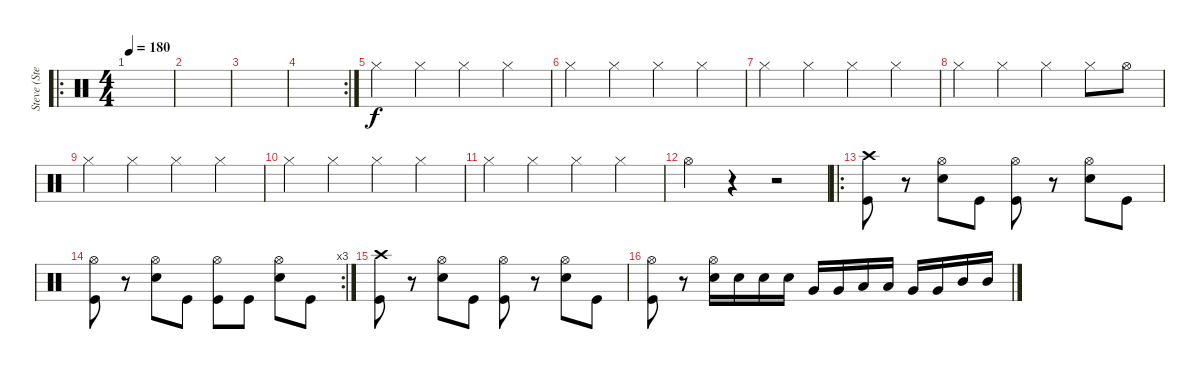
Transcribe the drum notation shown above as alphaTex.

\track ("Steve (Stevo32) - Drums" "Steve (Ste") {instrument percussion}
\staff {score}
\articulation defaults
\ro
\ts (4 4)
\tempo 180
\clef neutral
\ks c
|
|
|
\rc 2
|
"Hi-Hat (closed)".4 "Hi-Hat (closed)".4 "Hi-Hat (closed)".4 "Hi-Hat (closed)".4 |
"Hi-Hat (closed)".4 "Hi-Hat (closed)".4 "Hi-Hat (closed)".4 "Hi-Hat (closed)".4 |
"Hi-Hat (closed)".4 "Hi-Hat (closed)".4 "Hi-Hat (closed)".4 "Hi-Hat (closed)".4 |
"Hi-Hat (closed)".4 "Hi-Hat (closed)".4 "Hi-Hat (closed)".4 "Hi-Hat (closed)".8 "Hi-Hat (open)".8 |
"Hi-Hat (closed)".4 "Hi-Hat (closed)".4 "Hi-Hat (closed)".4 "Hi-Hat (closed)".4 |
"Hi-Hat (closed)".4 "Hi-Hat (closed)".4 "Hi-Hat (closed)".4 "Hi-Hat (closed)".4 |
"Hi-Hat (closed)".4 "Hi-Hat (closed)".4 "Hi-Hat (closed)".4 "Hi-Hat (closed)".4 |
"Hi-Hat (open)".4 r.4 r.2 |
\ro
("Crash high (hit)" "Kick (hit)").8 r.8 ("Hi-Hat (open)" "Electric Snare (hit)").8 "Kick (hit)".8 ("Hi-Hat (open)" "Kick (hit)").8 r.8 ("Hi-Hat (open)" "Electric Snare (hit)").8 "Kick (hit)".8 |
\rc 3
("Hi-Hat (open)" "Kick (hit)").8 r.8 ("Hi-Hat (open)" "Electric Snare (hit)").8 "Kick (hit)".8 ("Hi-Hat (open)" "Kick (hit)").8 "Kick (hit)".8 ("Hi-Hat (open)" "Electric Snare (hit)").8 "Kick (hit)".8 |
("Crash high (hit)" "Kick (hit)").8 r.8 ("Hi-Hat (open)" "Electric Snare (hit)").8 "Kick (hit)".8 ("Hi-Hat (open)" "Kick (hit)").8 r.8 ("Hi-Hat (open)" "Electric Snare (hit)").8 "Kick (hit)".8 |
("Hi-Hat (open)" "Kick (hit)").8 r.8 ("Hi-Hat (open)" "Electric Snare (hit)").16 "Electric Snare (hit)".16 "Electric Snare (hit)".16 "Electric Snare (hit)".16 "Very Low Tom (hit)".16 "Very Low Tom (hit)".16 "Low Floor Tom (hit)".16 "Low Floor Tom (hit)".16 "Very Low Tom (hit)".16 "Very Low Tom (hit)".16 "Mid Tom (hit)".16 "Mid Tom (hit)".16
